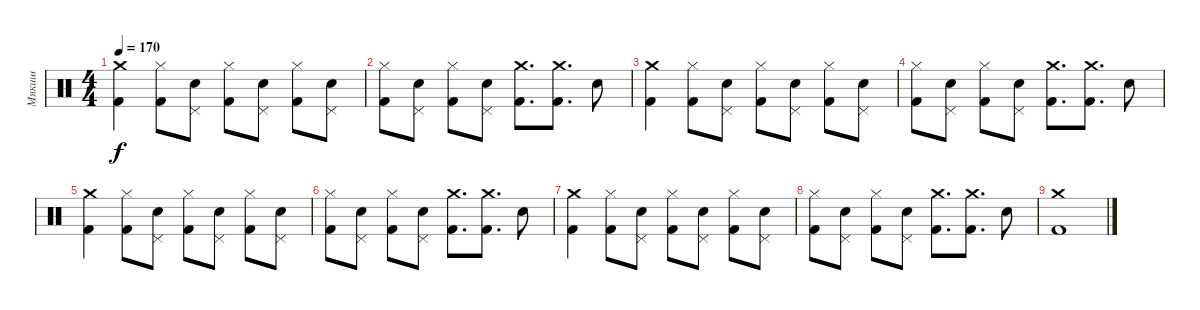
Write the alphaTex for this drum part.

\track ("Мякиш" "Мякиш") {instrument percussion}
\staff {score}
\articulation defaults
\ts (4 4)
\tempo 170
\clef neutral
\ks c
("Crash medium (hit)" "Kick (hit) 2").4{dy f} ("Hi-Hat (closed)" "Kick (hit) 2").8 ("Pedal Hi-Hat (hit)" "Electric Snare (hit)").8 ("Hi-Hat (closed)" "Kick (hit) 2").8 ("Pedal Hi-Hat (hit)" "Electric Snare (hit)").8 ("Hi-Hat (closed)" "Kick (hit) 2").8 ("Pedal Hi-Hat (hit)" "Electric Snare (hit)").8 |
("Hi-Hat (closed)" "Kick (hit) 2").8 ("Pedal Hi-Hat (hit)" "Electric Snare (hit)").8 ("Hi-Hat (closed)" "Kick (hit) 2").8 ("Pedal Hi-Hat (hit)" "Electric Snare (hit)").8 ("Crash medium (hit)" "Kick (hit) 2").8{d} ("Crash medium (hit)" "Kick (hit) 2").8{d} "Electric Snare (hit)".8 |
("Crash medium (hit)" "Kick (hit) 2").4 ("Hi-Hat (closed)" "Kick (hit) 2").8 ("Pedal Hi-Hat (hit)" "Electric Snare (hit)").8 ("Hi-Hat (closed)" "Kick (hit) 2").8 ("Pedal Hi-Hat (hit)" "Electric Snare (hit)").8 ("Hi-Hat (closed)" "Kick (hit) 2").8 ("Pedal Hi-Hat (hit)" "Electric Snare (hit)").8 |
("Hi-Hat (closed)" "Kick (hit) 2").8 ("Pedal Hi-Hat (hit)" "Electric Snare (hit)").8 ("Hi-Hat (closed)" "Kick (hit) 2").8 ("Pedal Hi-Hat (hit)" "Electric Snare (hit)").8 ("Crash medium (hit)" "Kick (hit) 2").8{d} ("Crash medium (hit)" "Kick (hit) 2").8{d} "Electric Snare (hit)".8 |
("Crash medium (hit)" "Kick (hit) 2").4 ("Hi-Hat (closed)" "Kick (hit) 2").8 ("Pedal Hi-Hat (hit)" "Electric Snare (hit)").8 ("Hi-Hat (closed)" "Kick (hit) 2").8 ("Pedal Hi-Hat (hit)" "Electric Snare (hit)").8 ("Hi-Hat (closed)" "Kick (hit) 2").8 ("Pedal Hi-Hat (hit)" "Electric Snare (hit)").8 |
("Hi-Hat (closed)" "Kick (hit) 2").8 ("Pedal Hi-Hat (hit)" "Electric Snare (hit)").8 ("Hi-Hat (closed)" "Kick (hit) 2").8 ("Pedal Hi-Hat (hit)" "Electric Snare (hit)").8 ("Crash medium (hit)" "Kick (hit) 2").8{d} ("Crash medium (hit)" "Kick (hit) 2").8{d} "Electric Snare (hit)".8 |
("Crash medium (hit)" "Kick (hit) 2").4 ("Hi-Hat (closed)" "Kick (hit) 2").8 ("Pedal Hi-Hat (hit)" "Electric Snare (hit)").8 ("Hi-Hat (closed)" "Kick (hit) 2").8 ("Pedal Hi-Hat (hit)" "Electric Snare (hit)").8 ("Hi-Hat (closed)" "Kick (hit) 2").8 ("Pedal Hi-Hat (hit)" "Electric Snare (hit)").8 |
("Hi-Hat (closed)" "Kick (hit) 2").8 ("Pedal Hi-Hat (hit)" "Electric Snare (hit)").8 ("Hi-Hat (closed)" "Kick (hit) 2").8 ("Pedal Hi-Hat (hit)" "Electric Snare (hit)").8 ("Crash medium (hit)" "Kick (hit) 2").8{d} ("Crash medium (hit)" "Kick (hit) 2").8{d} "Electric Snare (hit)".8 |
("Crash medium (hit)" "Kick (hit) 2").1
